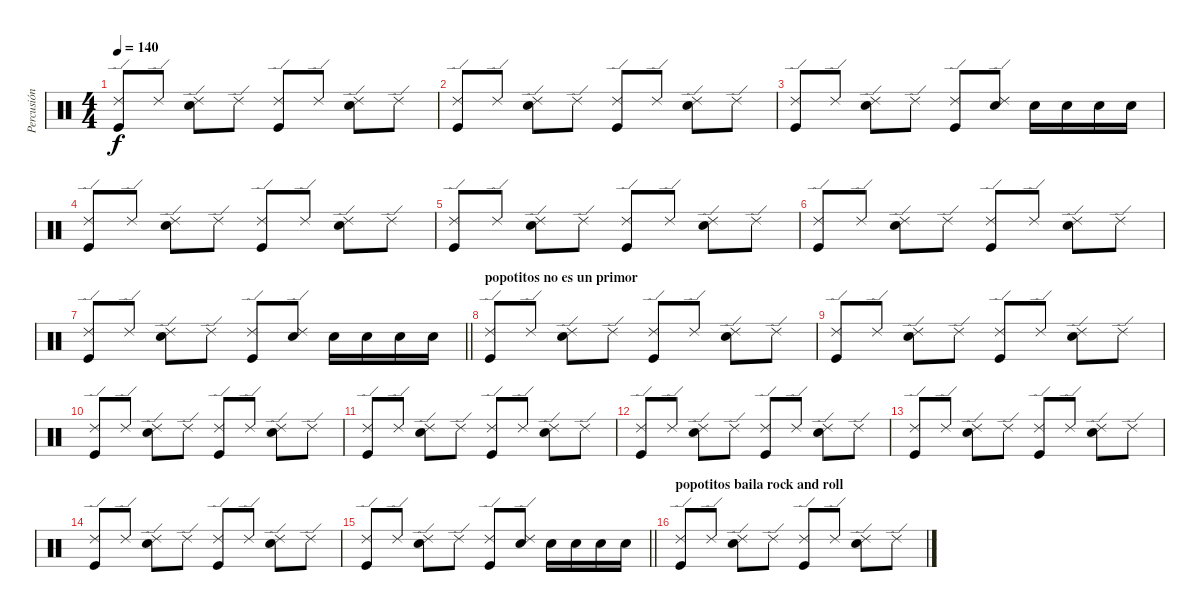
\track ("Percusión" "Percusión") {instrument percussion}
\staff {score}
\articulation defaults
\ts (4 4)
\tempo 140
\clef neutral
\ks c
("Ride (edge) 2" "Kick (hit)").8{dy f} "Ride (edge) 2".8 ("Ride (edge) 2" "Snare (hit) 2").8 "Ride (edge) 2".8 ("Ride (edge) 2" "Kick (hit)").8 "Ride (edge) 2".8 ("Ride (edge) 2" "Snare (hit) 2").8 "Ride (edge) 2".8 |
("Ride (edge) 2" "Kick (hit)").8 "Ride (edge) 2".8 ("Ride (edge) 2" "Snare (hit) 2").8 "Ride (edge) 2".8 ("Ride (edge) 2" "Kick (hit)").8 "Ride (edge) 2".8 ("Ride (edge) 2" "Snare (hit) 2").8 "Ride (edge) 2".8 |
("Ride (edge) 2" "Kick (hit)").8 "Ride (edge) 2".8 ("Ride (edge) 2" "Snare (hit) 2").8 "Ride (edge) 2".8 ("Ride (edge) 2" "Kick (hit)").8 ("Ride (edge) 2" "Snare (hit) 2").8 "Snare (hit) 2".16 "Snare (hit) 2".16 "Snare (hit) 2".16 "Snare (hit) 2".16 |
("Ride (edge) 2" "Kick (hit)").8 "Ride (edge) 2".8 ("Ride (edge) 2" "Snare (hit) 2").8 "Ride (edge) 2".8 ("Ride (edge) 2" "Kick (hit)").8 "Ride (edge) 2".8 ("Ride (edge) 2" "Snare (hit) 2").8 "Ride (edge) 2".8 |
("Ride (edge) 2" "Kick (hit)").8 "Ride (edge) 2".8 ("Ride (edge) 2" "Snare (hit) 2").8 "Ride (edge) 2".8 ("Ride (edge) 2" "Kick (hit)").8 "Ride (edge) 2".8 ("Ride (edge) 2" "Snare (hit) 2").8 "Ride (edge) 2".8 |
("Ride (edge) 2" "Kick (hit)").8 "Ride (edge) 2".8 ("Ride (edge) 2" "Snare (hit) 2").8 "Ride (edge) 2".8 ("Ride (edge) 2" "Kick (hit)").8 "Ride (edge) 2".8 ("Ride (edge) 2" "Snare (hit) 2").8 "Ride (edge) 2".8 |
\barLineRight lightlight
("Ride (edge) 2" "Kick (hit)").8 "Ride (edge) 2".8 ("Ride (edge) 2" "Snare (hit) 2").8 "Ride (edge) 2".8 ("Ride (edge) 2" "Kick (hit)").8 ("Ride (edge) 2" "Snare (hit) 2").8 "Snare (hit) 2".16 "Snare (hit) 2".16 "Snare (hit) 2".16 "Snare (hit) 2".16 |
\section ("" "popotitos no es un primor")
("Ride (edge) 2" "Kick (hit)").8 "Ride (edge) 2".8 ("Ride (edge) 2" "Snare (hit) 2").8 "Ride (edge) 2".8 ("Ride (edge) 2" "Kick (hit)").8 "Ride (edge) 2".8 ("Ride (edge) 2" "Snare (hit) 2").8 "Ride (edge) 2".8 |
("Ride (edge) 2" "Kick (hit)").8 "Ride (edge) 2".8 ("Ride (edge) 2" "Snare (hit) 2").8 "Ride (edge) 2".8 ("Ride (edge) 2" "Kick (hit)").8 "Ride (edge) 2".8 ("Ride (edge) 2" "Snare (hit) 2").8 "Ride (edge) 2".8 |
("Ride (edge) 2" "Kick (hit)").8 "Ride (edge) 2".8 ("Ride (edge) 2" "Snare (hit) 2").8 "Ride (edge) 2".8 ("Ride (edge) 2" "Kick (hit)").8 "Ride (edge) 2".8 ("Ride (edge) 2" "Snare (hit) 2").8 "Ride (edge) 2".8 |
("Ride (edge) 2" "Kick (hit)").8 "Ride (edge) 2".8 ("Ride (edge) 2" "Snare (hit) 2").8 "Ride (edge) 2".8 ("Ride (edge) 2" "Kick (hit)").8 "Ride (edge) 2".8 ("Ride (edge) 2" "Snare (hit) 2").8 "Ride (edge) 2".8 |
("Ride (edge) 2" "Kick (hit)").8 "Ride (edge) 2".8 ("Ride (edge) 2" "Snare (hit) 2").8 "Ride (edge) 2".8 ("Ride (edge) 2" "Kick (hit)").8 "Ride (edge) 2".8 ("Ride (edge) 2" "Snare (hit) 2").8 "Ride (edge) 2".8 |
("Ride (edge) 2" "Kick (hit)").8 "Ride (edge) 2".8 ("Ride (edge) 2" "Snare (hit) 2").8 "Ride (edge) 2".8 ("Ride (edge) 2" "Kick (hit)").8 "Ride (edge) 2".8 ("Ride (edge) 2" "Snare (hit) 2").8 "Ride (edge) 2".8 |
("Ride (edge) 2" "Kick (hit)").8 "Ride (edge) 2".8 ("Ride (edge) 2" "Snare (hit) 2").8 "Ride (edge) 2".8 ("Ride (edge) 2" "Kick (hit)").8 "Ride (edge) 2".8 ("Ride (edge) 2" "Snare (hit) 2").8 "Ride (edge) 2".8 |
\barLineRight lightlight
("Ride (edge) 2" "Kick (hit)").8 "Ride (edge) 2".8 ("Ride (edge) 2" "Snare (hit) 2").8 "Ride (edge) 2".8 ("Ride (edge) 2" "Kick (hit)").8 ("Ride (edge) 2" "Snare (hit) 2").8 "Snare (hit) 2".16 "Snare (hit) 2".16 "Snare (hit) 2".16 "Snare (hit) 2".16 |
\section ("" "popotitos baila rock and roll")
("Ride (edge) 2" "Kick (hit)").8 "Ride (edge) 2".8 ("Ride (edge) 2" "Snare (hit) 2").8 "Ride (edge) 2".8 ("Ride (edge) 2" "Kick (hit)").8 "Ride (edge) 2".8 ("Ride (edge) 2" "Snare (hit) 2").8 "Ride (edge) 2".8
